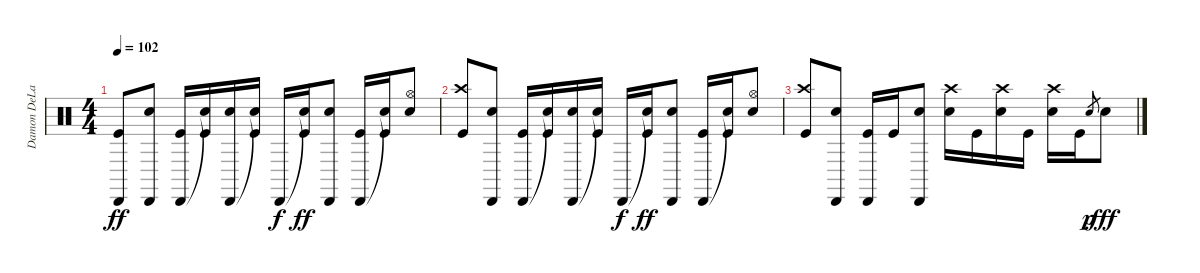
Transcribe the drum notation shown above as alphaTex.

\track ("Damon DeLapaz - Drums" "Damon DeLa") {instrument percussion}
\staff {score}
\articulation defaults
\ts (4 4)
\tempo 102
\clef neutral
\ks c
("Cabasa (hit)" "Kick (hit)").8{dy ff} ("Cabasa (hit)" "Snare (hit) 2").8 ("Cabasa (hit)" "Kick (hit)").16 ("Snare (hit)"{t} "Kick (hit)").16 ("Cabasa (hit)" "Snare (hit) 2").16 ("Snare (hit)"{t} "Kick (hit)").16 "Cabasa (hit)".16{dy f} ("Snare (hit)"{t} "Kick (hit)").16{dy ff} ("Cabasa (hit)" "Snare (hit) 2").8 ("Cabasa (hit)" "Kick (hit)").16 ("Snare (hit)"{t} "Kick (hit)").16 ("Hi-Hat (open)" "Snare (hit) 2").8 |
("Crash high (hit)" "Kick (hit)").8 ("Cabasa (hit)" "Snare (hit) 2").8 ("Cabasa (hit)" "Kick (hit)").16 ("Snare (hit)"{t} "Kick (hit)").16 ("Cabasa (hit)" "Snare (hit) 2").16 ("Snare (hit)"{t} "Kick (hit)").16 "Cabasa (hit)".16{dy f} ("Snare (hit)"{t} "Kick (hit)").16{dy ff} ("Cabasa (hit)" "Snare (hit) 2").8 ("Cabasa (hit)" "Kick (hit)").16 ("Snare (hit)"{t} "Kick (hit)").16 ("Hi-Hat (open)" "Snare (hit) 2").8 |
("Crash high (hit)" "Kick (hit)").8 ("Cabasa (hit)" "Snare (hit) 2").8 ("Cabasa (hit)" "Kick (hit)").16 "Kick (hit)".16 ("Cabasa (hit)" "Snare (hit) 2").8 ("Crash high (hit)" "Snare (hit) 2").16 "Kick (hit)".16 ("Crash high (hit)" "Snare (hit) 2").16 "Kick (hit)".16 ("Crash high (hit)" "Snare (hit) 2").16 "Kick (hit)".16 "Snare (hit) 2".8{gr dy p} "Snare (hit) 2".8{dy fff}
